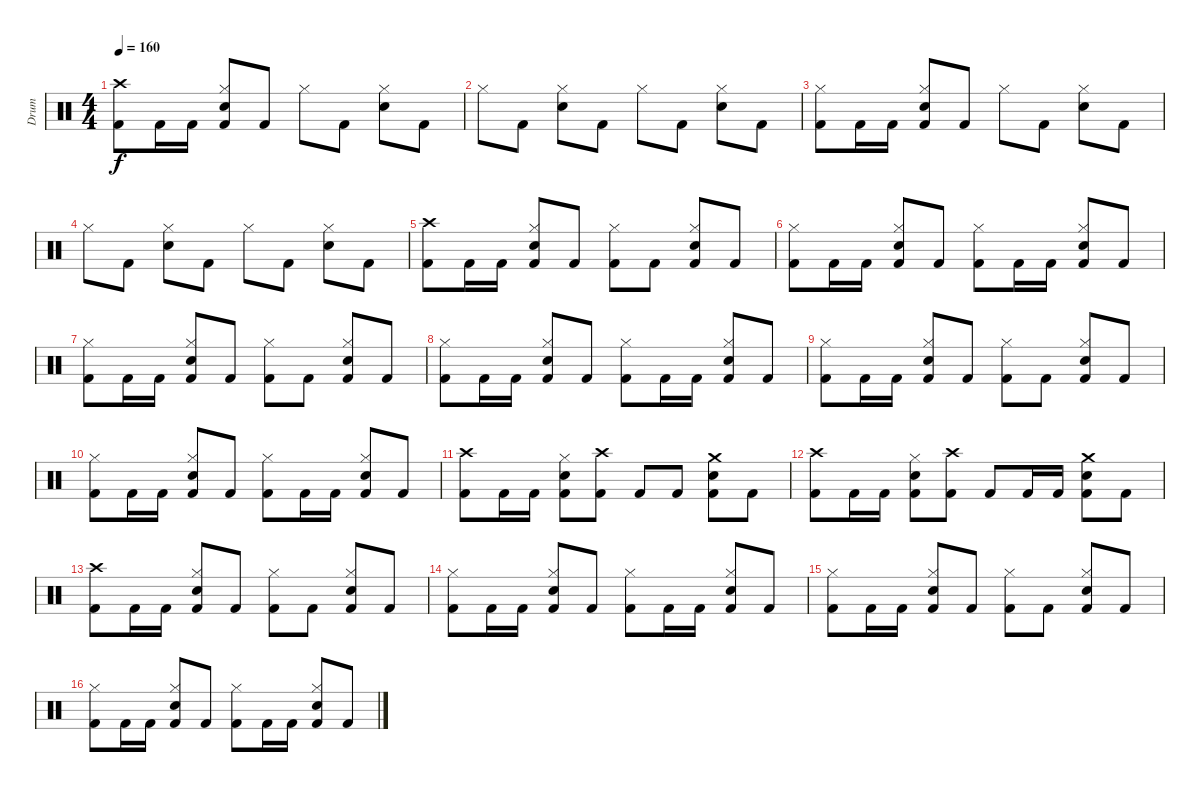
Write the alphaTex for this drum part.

\track ("Drum" "Drum") {instrument percussion}
\staff {score}
\articulation defaults
\ts (4 4)
\tempo 160
\clef neutral
\ks c
("Crash high (hit)" "Kick (hit) 2").8{dy f} "Kick (hit) 2".16 "Kick (hit) 2".16 ("Hi-Hat (closed)" "Electric Snare (hit)" "Kick (hit) 2").8 "Kick (hit) 2".8 "Hi-Hat (closed)".8 "Kick (hit) 2".8 ("Hi-Hat (closed)" "Electric Snare (hit)").8 "Kick (hit) 2".8 |
"Hi-Hat (closed)".8 "Kick (hit) 2".8 ("Hi-Hat (closed)" "Electric Snare (hit)").8 "Kick (hit) 2".8 "Hi-Hat (closed)".8 "Kick (hit) 2".8 ("Hi-Hat (closed)" "Electric Snare (hit)").8 "Kick (hit) 2".8 |
("Hi-Hat (closed)" "Kick (hit) 2").8 "Kick (hit) 2".16 "Kick (hit) 2".16 ("Hi-Hat (closed)" "Electric Snare (hit)" "Kick (hit) 2").8 "Kick (hit) 2".8 "Hi-Hat (closed)".8 "Kick (hit) 2".8 ("Hi-Hat (closed)" "Electric Snare (hit)").8 "Kick (hit) 2".8 |
"Hi-Hat (closed)".8 "Kick (hit) 2".8 ("Hi-Hat (closed)" "Electric Snare (hit)").8 "Kick (hit) 2".8 "Hi-Hat (closed)".8 "Kick (hit) 2".8 ("Hi-Hat (closed)" "Electric Snare (hit)").8 "Kick (hit) 2".8 |
("Crash high (hit)" "Kick (hit) 2").8 "Kick (hit) 2".16 "Kick (hit) 2".16 ("Hi-Hat (closed)" "Electric Snare (hit)" "Kick (hit) 2").8 "Kick (hit) 2".8 ("Hi-Hat (closed)" "Kick (hit) 2").8 "Kick (hit) 2".8 ("Hi-Hat (closed)" "Electric Snare (hit)" "Kick (hit) 2").8 "Kick (hit) 2".8 |
("Hi-Hat (closed)" "Kick (hit) 2").8 "Kick (hit) 2".16 "Kick (hit) 2".16 ("Hi-Hat (closed)" "Electric Snare (hit)" "Kick (hit) 2").8 "Kick (hit) 2".8 ("Hi-Hat (closed)" "Kick (hit) 2").8 "Kick (hit) 2".16 "Kick (hit) 2".16 ("Hi-Hat (closed)" "Electric Snare (hit)" "Kick (hit) 2").8 "Kick (hit) 2".8 |
("Hi-Hat (closed)" "Kick (hit) 2").8 "Kick (hit) 2".16 "Kick (hit) 2".16 ("Hi-Hat (closed)" "Electric Snare (hit)" "Kick (hit) 2").8 "Kick (hit) 2".8 ("Hi-Hat (closed)" "Kick (hit) 2").8 "Kick (hit) 2".8 ("Hi-Hat (closed)" "Electric Snare (hit)" "Kick (hit) 2").8 "Kick (hit) 2".8 |
("Hi-Hat (closed)" "Kick (hit) 2").8 "Kick (hit) 2".16 "Kick (hit) 2".16 ("Hi-Hat (closed)" "Electric Snare (hit)" "Kick (hit) 2").8 "Kick (hit) 2".8 ("Hi-Hat (closed)" "Kick (hit) 2").8 "Kick (hit) 2".16 "Kick (hit) 2".16 ("Hi-Hat (closed)" "Electric Snare (hit)" "Kick (hit) 2").8 "Kick (hit) 2".8 |
("Hi-Hat (closed)" "Kick (hit) 2").8 "Kick (hit) 2".16 "Kick (hit) 2".16 ("Hi-Hat (closed)" "Electric Snare (hit)" "Kick (hit) 2").8 "Kick (hit) 2".8 ("Hi-Hat (closed)" "Kick (hit) 2").8 "Kick (hit) 2".8 ("Hi-Hat (closed)" "Electric Snare (hit)" "Kick (hit) 2").8 "Kick (hit) 2".8 |
("Hi-Hat (closed)" "Kick (hit) 2").8 "Kick (hit) 2".16 "Kick (hit) 2".16 ("Hi-Hat (closed)" "Electric Snare (hit)" "Kick (hit) 2").8 "Kick (hit) 2".8 ("Hi-Hat (closed)" "Kick (hit) 2").8 "Kick (hit) 2".16 "Kick (hit) 2".16 ("Hi-Hat (closed)" "Electric Snare (hit)" "Kick (hit) 2").8 "Kick (hit) 2".8 |
("Crash high (hit)" "Kick (hit) 2").8 "Kick (hit) 2".16 "Kick (hit) 2".16 ("Hi-Hat (closed)" "Electric Snare (hit)" "Kick (hit) 2").8 ("Crash high (hit)" "Kick (hit) 2").8 "Kick (hit) 2".8 "Kick (hit) 2".8 ("Crash medium (hit)" "Electric Snare (hit)" "Kick (hit) 2").8 "Kick (hit) 2".8 |
("Crash high (hit)" "Kick (hit) 2").8 "Kick (hit) 2".16 "Kick (hit) 2".16 ("Hi-Hat (closed)" "Electric Snare (hit)" "Kick (hit) 2").8 ("Crash high (hit)" "Kick (hit) 2").8 "Kick (hit) 2".8 "Kick (hit) 2".16 "Kick (hit) 2".16 ("Crash medium (hit)" "Electric Snare (hit)" "Kick (hit) 2").8 "Kick (hit) 2".8 |
("Crash high (hit)" "Kick (hit) 2").8 "Kick (hit) 2".16 "Kick (hit) 2".16 ("Hi-Hat (closed)" "Electric Snare (hit)" "Kick (hit) 2").8 "Kick (hit) 2".8 ("Hi-Hat (closed)" "Kick (hit) 2").8 "Kick (hit) 2".8 ("Hi-Hat (closed)" "Electric Snare (hit)" "Kick (hit) 2").8 "Kick (hit) 2".8 |
("Hi-Hat (closed)" "Kick (hit) 2").8 "Kick (hit) 2".16 "Kick (hit) 2".16 ("Hi-Hat (closed)" "Electric Snare (hit)" "Kick (hit) 2").8 "Kick (hit) 2".8 ("Hi-Hat (closed)" "Kick (hit) 2").8 "Kick (hit) 2".16 "Kick (hit) 2".16 ("Hi-Hat (closed)" "Electric Snare (hit)" "Kick (hit) 2").8 "Kick (hit) 2".8 |
("Hi-Hat (closed)" "Kick (hit) 2").8 "Kick (hit) 2".16 "Kick (hit) 2".16 ("Hi-Hat (closed)" "Electric Snare (hit)" "Kick (hit) 2").8 "Kick (hit) 2".8 ("Hi-Hat (closed)" "Kick (hit) 2").8 "Kick (hit) 2".8 ("Hi-Hat (closed)" "Electric Snare (hit)" "Kick (hit) 2").8 "Kick (hit) 2".8 |
("Hi-Hat (closed)" "Kick (hit) 2").8 "Kick (hit) 2".16 "Kick (hit) 2".16 ("Hi-Hat (closed)" "Electric Snare (hit)" "Kick (hit) 2").8 "Kick (hit) 2".8 ("Hi-Hat (closed)" "Kick (hit) 2").8 "Kick (hit) 2".16 "Kick (hit) 2".16 ("Hi-Hat (closed)" "Electric Snare (hit)" "Kick (hit) 2").8 "Kick (hit) 2".8
